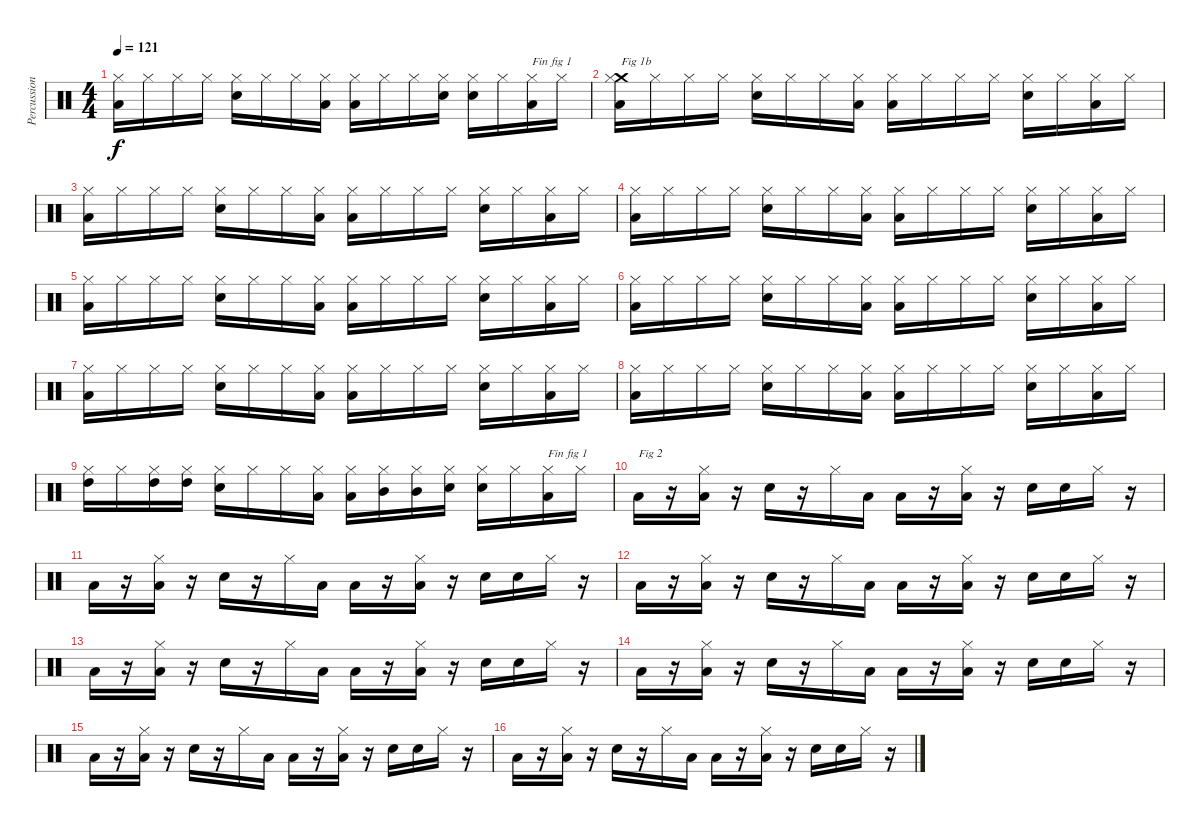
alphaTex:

\track ("Percussions" "Percussion") {instrument percussion}
\staff {score}
\articulation defaults
\ts (4 4)
\tempo 121
\clef neutral
\ks c
("Low Floor Tom (hit)" "Hi-Hat (closed)").16{dy f} "Hi-Hat (closed)".16 "Hi-Hat (closed)".16 "Hi-Hat (closed)".16 ("Electric Snare (hit)" "Hi-Hat (closed)").16 "Hi-Hat (closed)".16 "Hi-Hat (closed)".16 ("Low Floor Tom (hit)" "Hi-Hat (closed)").16 ("Low Floor Tom (hit)" "Hi-Hat (closed)").16 "Hi-Hat (closed)".16 "Hi-Hat (closed)".16 ("Electric Snare (hit)" "Hi-Hat (closed)").16 ("Electric Snare (hit)" "Hi-Hat (closed)").16 "Hi-Hat (closed)".16 ("Low Floor Tom (hit)" "Hi-Hat (closed)").16{txt "Fin fig 1"} "Hi-Hat (closed)".16 |
("Low Floor Tom (hit)" "Crash medium (hit)" "Hi-Hat (closed)").16{txt "Fig 1b"} "Hi-Hat (closed)".16 "Hi-Hat (closed)".16 "Hi-Hat (closed)".16 ("Electric Snare (hit)" "Hi-Hat (closed)").16 "Hi-Hat (closed)".16 "Hi-Hat (closed)".16 ("Low Floor Tom (hit)" "Hi-Hat (closed)").16 ("Low Floor Tom (hit)" "Hi-Hat (closed)").16 "Hi-Hat (closed)".16 "Hi-Hat (closed)".16 "Hi-Hat (closed)".16 ("Electric Snare (hit)" "Hi-Hat (closed)").16 "Hi-Hat (closed)".16 ("Low Floor Tom (hit)" "Hi-Hat (closed)").16 "Hi-Hat (closed)".16 |
("Low Floor Tom (hit)" "Hi-Hat (closed)").16 "Hi-Hat (closed)".16 "Hi-Hat (closed)".16 "Hi-Hat (closed)".16 ("Electric Snare (hit)" "Hi-Hat (closed)").16 "Hi-Hat (closed)".16 "Hi-Hat (closed)".16 ("Low Floor Tom (hit)" "Hi-Hat (closed)").16 ("Low Floor Tom (hit)" "Hi-Hat (closed)").16 "Hi-Hat (closed)".16 "Hi-Hat (closed)".16 "Hi-Hat (closed)".16 ("Electric Snare (hit)" "Hi-Hat (closed)").16 "Hi-Hat (closed)".16 ("Low Floor Tom (hit)" "Hi-Hat (closed)").16 "Hi-Hat (closed)".16 |
("Low Floor Tom (hit)" "Hi-Hat (closed)").16 "Hi-Hat (closed)".16 "Hi-Hat (closed)".16 "Hi-Hat (closed)".16 ("Electric Snare (hit)" "Hi-Hat (closed)").16 "Hi-Hat (closed)".16 "Hi-Hat (closed)".16 ("Low Floor Tom (hit)" "Hi-Hat (closed)").16 ("Low Floor Tom (hit)" "Hi-Hat (closed)").16 "Hi-Hat (closed)".16 "Hi-Hat (closed)".16 "Hi-Hat (closed)".16 ("Electric Snare (hit)" "Hi-Hat (closed)").16 "Hi-Hat (closed)".16 ("Low Floor Tom (hit)" "Hi-Hat (closed)").16 "Hi-Hat (closed)".16 |
("Low Floor Tom (hit)" "Hi-Hat (closed)").16 "Hi-Hat (closed)".16 "Hi-Hat (closed)".16 "Hi-Hat (closed)".16 ("Electric Snare (hit)" "Hi-Hat (closed)").16 "Hi-Hat (closed)".16 "Hi-Hat (closed)".16 ("Low Floor Tom (hit)" "Hi-Hat (closed)").16 ("Low Floor Tom (hit)" "Hi-Hat (closed)").16 "Hi-Hat (closed)".16 "Hi-Hat (closed)".16 "Hi-Hat (closed)".16 ("Electric Snare (hit)" "Hi-Hat (closed)").16 "Hi-Hat (closed)".16 ("Low Floor Tom (hit)" "Hi-Hat (closed)").16 "Hi-Hat (closed)".16 |
("Low Floor Tom (hit)" "Hi-Hat (closed)").16 "Hi-Hat (closed)".16 "Hi-Hat (closed)".16 "Hi-Hat (closed)".16 ("Electric Snare (hit)" "Hi-Hat (closed)").16 "Hi-Hat (closed)".16 "Hi-Hat (closed)".16 ("Low Floor Tom (hit)" "Hi-Hat (closed)").16 ("Low Floor Tom (hit)" "Hi-Hat (closed)").16 "Hi-Hat (closed)".16 "Hi-Hat (closed)".16 "Hi-Hat (closed)".16 ("Electric Snare (hit)" "Hi-Hat (closed)").16 "Hi-Hat (closed)".16 ("Low Floor Tom (hit)" "Hi-Hat (closed)").16 "Hi-Hat (closed)".16 |
("Low Floor Tom (hit)" "Hi-Hat (closed)").16 "Hi-Hat (closed)".16 "Hi-Hat (closed)".16 "Hi-Hat (closed)".16 ("Electric Snare (hit)" "Hi-Hat (closed)").16 "Hi-Hat (closed)".16 "Hi-Hat (closed)".16 ("Low Floor Tom (hit)" "Hi-Hat (closed)").16 ("Low Floor Tom (hit)" "Hi-Hat (closed)").16 "Hi-Hat (closed)".16 "Hi-Hat (closed)".16 "Hi-Hat (closed)".16 ("Electric Snare (hit)" "Hi-Hat (closed)").16 "Hi-Hat (closed)".16 ("Low Floor Tom (hit)" "Hi-Hat (closed)").16 "Hi-Hat (closed)".16 |
("Low Floor Tom (hit)" "Hi-Hat (closed)").16 "Hi-Hat (closed)".16 "Hi-Hat (closed)".16 "Hi-Hat (closed)".16 ("Electric Snare (hit)" "Hi-Hat (closed)").16 "Hi-Hat (closed)".16 "Hi-Hat (closed)".16 ("Low Floor Tom (hit)" "Hi-Hat (closed)").16 ("Low Floor Tom (hit)" "Hi-Hat (closed)").16 "Hi-Hat (closed)".16 "Hi-Hat (closed)".16 "Hi-Hat (closed)".16 ("Electric Snare (hit)" "Hi-Hat (closed)").16 "Hi-Hat (closed)".16 ("Low Floor Tom (hit)" "Hi-Hat (closed)").16 "Hi-Hat (closed)".16 |
("High Tom (hit)" "Hi-Hat (closed)").16 "Hi-Hat (closed)".16 ("High Tom (hit)" "Hi-Hat (closed)").16 ("High Tom (hit)" "Hi-Hat (closed)").16 ("Snare (hit) 2" "Hi-Hat (closed)").16 "Hi-Hat (closed)".16 "Hi-Hat (closed)".16 ("Low Floor Tom (hit)" "Hi-Hat (closed)").16 ("Low Floor Tom (hit)" "Hi-Hat (closed)").16 ("Mid Tom (hit)" "Hi-Hat (closed)").16 ("Mid Tom (hit)" "Hi-Hat (closed)").16 ("Electric Snare (hit)" "Hi-Hat (closed)").16 ("Electric Snare (hit)" "Hi-Hat (closed)").16 "Hi-Hat (closed)".16 ("Low Floor Tom (hit)" "Hi-Hat (closed)").16{txt "Fin fig 1"} "Hi-Hat (closed)".16 |
"Low Floor Tom (hit)".16{txt "Fig 2"} r.16 ("Low Floor Tom (hit)" "Hi-Hat (closed)").16 r.16 "Electric Snare (hit)".16 r.16 "Hi-Hat (closed)".16 "Low Floor Tom (hit)".16 "Low Floor Tom (hit)".16 r.16 ("Low Floor Tom (hit)" "Hi-Hat (closed)").16 r.16 "Electric Snare (hit)".16 "Electric Snare (hit)".16 "Hi-Hat (closed)".16 r.16 |
"Low Floor Tom (hit)".16 r.16 ("Low Floor Tom (hit)" "Hi-Hat (closed)").16 r.16 "Electric Snare (hit)".16 r.16 "Hi-Hat (closed)".16 "Low Floor Tom (hit)".16 "Low Floor Tom (hit)".16 r.16 ("Low Floor Tom (hit)" "Hi-Hat (closed)").16 r.16 "Electric Snare (hit)".16 "Electric Snare (hit)".16 "Hi-Hat (closed)".16 r.16 |
"Low Floor Tom (hit)".16 r.16 ("Low Floor Tom (hit)" "Hi-Hat (closed)").16 r.16 "Electric Snare (hit)".16 r.16 "Hi-Hat (closed)".16 "Low Floor Tom (hit)".16 "Low Floor Tom (hit)".16 r.16 ("Low Floor Tom (hit)" "Hi-Hat (closed)").16 r.16 "Electric Snare (hit)".16 "Electric Snare (hit)".16 "Hi-Hat (closed)".16 r.16 |
"Low Floor Tom (hit)".16 r.16 ("Low Floor Tom (hit)" "Hi-Hat (closed)").16 r.16 "Electric Snare (hit)".16 r.16 "Hi-Hat (closed)".16 "Low Floor Tom (hit)".16 "Low Floor Tom (hit)".16 r.16 ("Low Floor Tom (hit)" "Hi-Hat (closed)").16 r.16 "Electric Snare (hit)".16 "Electric Snare (hit)".16 "Hi-Hat (closed)".16 r.16 |
"Low Floor Tom (hit)".16 r.16 ("Low Floor Tom (hit)" "Hi-Hat (closed)").16 r.16 "Electric Snare (hit)".16 r.16 "Hi-Hat (closed)".16 "Low Floor Tom (hit)".16 "Low Floor Tom (hit)".16 r.16 ("Low Floor Tom (hit)" "Hi-Hat (closed)").16 r.16 "Electric Snare (hit)".16 "Electric Snare (hit)".16 "Hi-Hat (closed)".16 r.16 |
"Low Floor Tom (hit)".16 r.16 ("Low Floor Tom (hit)" "Hi-Hat (closed)").16 r.16 "Electric Snare (hit)".16 r.16 "Hi-Hat (closed)".16 "Low Floor Tom (hit)".16 "Low Floor Tom (hit)".16 r.16 ("Low Floor Tom (hit)" "Hi-Hat (closed)").16 r.16 "Electric Snare (hit)".16 "Electric Snare (hit)".16 "Hi-Hat (closed)".16 r.16 |
"Low Floor Tom (hit)".16 r.16 ("Low Floor Tom (hit)" "Hi-Hat (closed)").16 r.16 "Electric Snare (hit)".16 r.16 "Hi-Hat (closed)".16 "Low Floor Tom (hit)".16 "Low Floor Tom (hit)".16 r.16 ("Low Floor Tom (hit)" "Hi-Hat (closed)").16 r.16 "Electric Snare (hit)".16 "Electric Snare (hit)".16 "Hi-Hat (closed)".16 r.16
